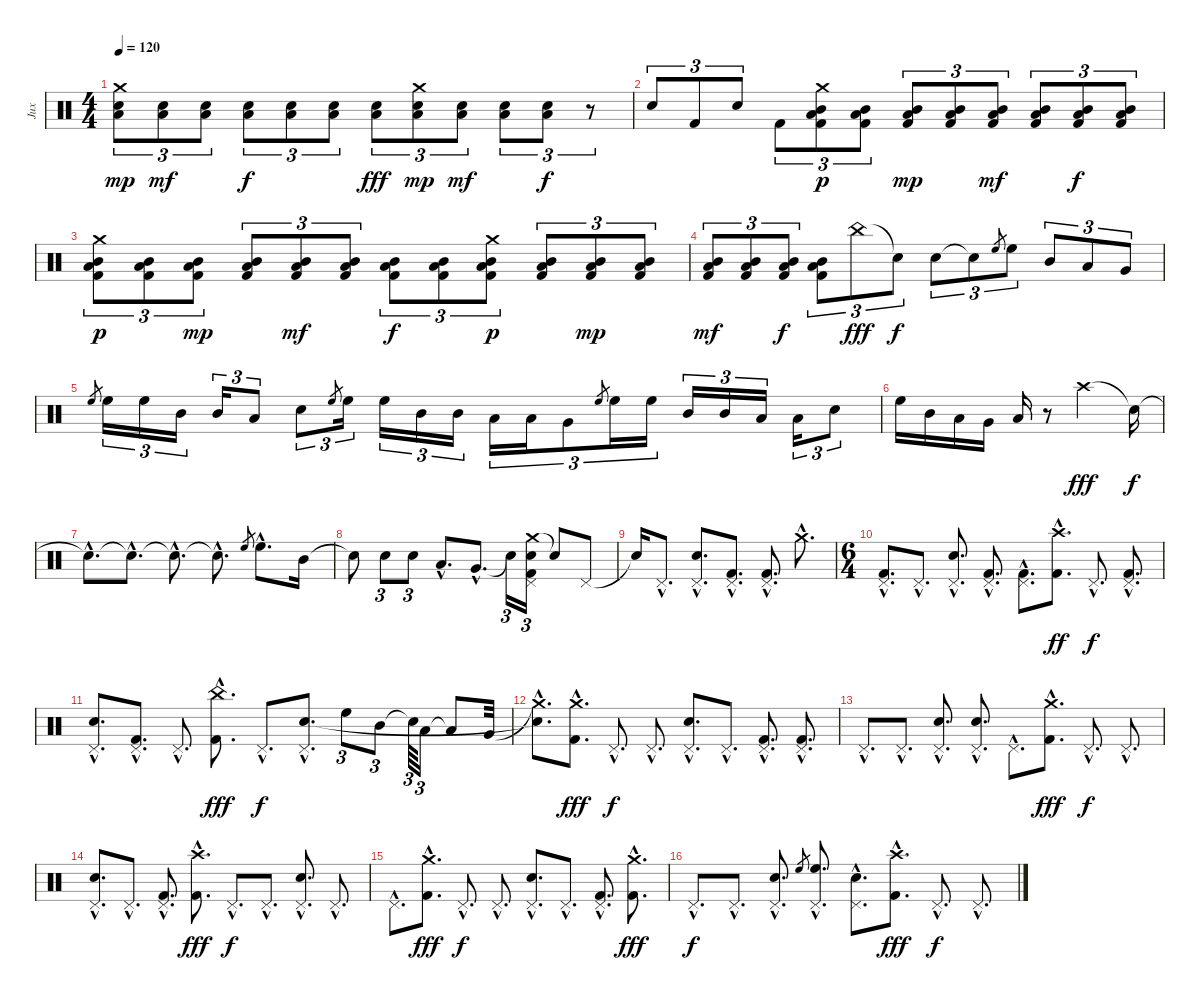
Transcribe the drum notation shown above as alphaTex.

\track ("Jux" "Jux") {instrument percussion}
\staff {score}
\articulation defaults
\ts (4 4)
\tempo 120
\clef neutral
\ks c
("Crash medium (hit)" "Low Tom (hit)" "Electric Snare (hit)").8{tu (3 2) dy mp} ("Low Tom (hit)" "Electric Snare (hit)").8{tu (3 2) dy mf} ("Low Tom (hit)" "Electric Snare (hit)").8{tu (3 2)} ("Low Tom (hit)" "Electric Snare (hit)").8{tu (3 2) dy f} ("Low Tom (hit)" "Electric Snare (hit)").8{tu (3 2)} ("Low Tom (hit)" "Electric Snare (hit)").8{tu (3 2)} ("Low Tom (hit)" "Electric Snare (hit)").8{tu (3 2) dy fff} ("Crash medium (hit)" "Low Tom (hit)" "Electric Snare (hit)").8{tu (3 2) dy mp} ("Low Tom (hit)" "Electric Snare (hit)").8{tu (3 2) dy mf} ("Low Tom (hit)" "Electric Snare (hit)").8{tu (3 2)} ("Low Tom (hit)" "Electric Snare (hit)").8{tu (3 2) dy f} r.8{tu (3 2)} |
"Electric Snare (hit)".8{tu (3 2)} "Kick (hit) 2".8{tu (3 2)} "Electric Snare (hit)".8{tu (3 2)} "Kick (hit) 2".8{tu (3 2)} ("Crash medium (hit)" "Low Tom (hit)" "Mid Tom (hit)" "Kick (hit) 2").8{tu (3 2) dy p} ("Low Tom (hit)" "Mid Tom (hit)" "Kick (hit) 2").8{tu (3 2)} ("Low Tom (hit)" "Mid Tom (hit)" "Kick (hit) 2").8{tu (3 2) dy mp} ("Low Tom (hit)" "Mid Tom (hit)" "Kick (hit) 2").8{tu (3 2)} ("Low Tom (hit)" "Mid Tom (hit)" "Kick (hit) 2").8{tu (3 2) dy mf} ("Low Tom (hit)" "Mid Tom (hit)" "Kick (hit) 2").8{tu (3 2)} ("Low Tom (hit)" "Mid Tom (hit)" "Kick (hit) 2").8{tu (3 2) dy f} ("Low Tom (hit)" "Mid Tom (hit)" "Kick (hit) 2").8{tu (3 2)} |
("Crash medium (hit)" "Low Tom (hit)" "Mid Tom (hit)" "Kick (hit) 2").8{tu (3 2) dy p} ("Low Tom (hit)" "Mid Tom (hit)" "Kick (hit) 2").8{tu (3 2)} ("Low Tom (hit)" "Mid Tom (hit)" "Kick (hit) 2").8{tu (3 2) dy mp} ("Low Tom (hit)" "Mid Tom (hit)" "Kick (hit) 2").8{tu (3 2)} ("Low Tom (hit)" "Mid Tom (hit)" "Kick (hit) 2").8{tu (3 2) dy mf} ("Low Tom (hit)" "Mid Tom (hit)" "Kick (hit) 2").8{tu (3 2)} ("Low Tom (hit)" "Mid Tom (hit)" "Kick (hit) 2").8{tu (3 2) dy f} ("Low Tom (hit)" "Mid Tom (hit)" "Kick (hit) 2").8{tu (3 2)} ("Crash medium (hit)" "Low Tom (hit)" "Mid Tom (hit)" "Kick (hit) 2").8{tu (3 2) dy p} ("Low Tom (hit)" "Mid Tom (hit)" "Kick (hit) 2").8{tu (3 2)} ("Low Tom (hit)" "Mid Tom (hit)" "Kick (hit) 2").8{tu (3 2) dy mp} ("Low Tom (hit)" "Mid Tom (hit)" "Kick (hit) 2").8{tu (3 2)} |
("Low Tom (hit)" "Mid Tom (hit)" "Kick (hit) 2").8{tu (3 2) dy mf} ("Low Tom (hit)" "Mid Tom (hit)" "Kick (hit) 2").8{tu (3 2)} ("Low Tom (hit)" "Mid Tom (hit)" "Kick (hit) 2").8{tu (3 2) dy f} ("Low Tom (hit)" "Mid Tom (hit)" "Kick (hit) 2").8{tu (3 2)} "China (hit)".8{tu (3 2) dy fff} "Snare (hit)"{t}.8{tu (3 2) dy f} "Electric Snare (hit)".8{tu (3 2)} "Snare (hit)"{t}.8{tu (3 2)} "High Floor Tom (hit)".8{gr} "High Floor Tom (hit)".8{tu (3 2)} "Mid Tom (hit)".8{tu (3 2)} "Low Tom (hit)".8{tu (3 2)} "Very Low Tom (hit)".8{tu (3 2)} |
"High Floor Tom (hit)".8{gr} "High Floor Tom (hit)".16{tu (3 2)} "High Floor Tom (hit)".16{tu (3 2)} "Mid Tom (hit)".16{tu (3 2)} "Mid Tom (hit)".16{tu (3 2)} "Low Tom (hit)".8{tu (3 2)} "Electric Snare (hit)".8{tu (3 2)} "High Floor Tom (hit)".8{gr} "High Floor Tom (hit)".16{tu (3 2)} "High Floor Tom (hit)".16{tu (3 2)} "Mid Tom (hit)".16{tu (3 2)} "Mid Tom (hit)".16{tu (3 2)} "Low Tom (hit)".16{tu (3 2)} "Low Tom (hit)".16{tu (3 2)} "Very Low Tom (hit)".8{tu (3 2)} "High Floor Tom (hit)".8{gr} "High Floor Tom (hit)".16{tu (3 2)} "High Floor Tom (hit)".16{tu (3 2)} "Mid Tom (hit)".16{tu (3 2)} "Mid Tom (hit)".16{tu (3 2)} "Low Tom (hit)".16{tu (3 2)} "Low Tom (hit)".16{tu (3 2)} "Electric Snare (hit)".8{tu (3 2)} |
"High Floor Tom (hit)".16 "Mid Tom (hit)".16 "Low Tom (hit)".16 "Very Low Tom (hit)".16 "Low Tom (hit)".16 r.8 "Crash high (hit)".2{dy fff} "Snare (hit)"{t}.16{dy f} |
"Snare (hit)"{hac t}.8{d} "Snare (hit)"{hac t}.8{d} "Snare (hit)"{hac t}.8{d} "Snare (hit)"{hac t}.8{d} "High Floor Tom (hit)".8{gr} "High Floor Tom (hit)"{hac}.8{d} "Mid Tom (hit)".16 |
"Snare (hit)"{t}.8 "Electric Snare (hit)".8{tu (3 2)} "Electric Snare (hit)".8{tu (3 2)} "Low Tom (hit)"{hac}.8{d} "Very Low Tom (hit)"{hac}.8{d} "Snare (hit)"{t}.16{tu (3 2)} ("Crash medium (hit)" "Pedal Hi-Hat (hit)" "Snare (hit)" "Kick (hit) 2").16{tu (3 2)} "Snare (hit)"{t}.8 "Pedal Hi-Hat (hit)".8 |
"Snare (hit)"{t}.16 "Pedal Hi-Hat (hit)"{hac}.8{d} ("Pedal Hi-Hat (hit)"{hac} "Electric Snare (hit)"{hac}).8{d} ("Pedal Hi-Hat (hit)"{hac} "Kick (hit) 2"{hac}).8{d} ("Pedal Hi-Hat (hit)"{hac} "Kick (hit) 2"{hac}).8{d} "Crash medium (hit)"{hac}.8{d} |
\ts (6 4)
("Pedal Hi-Hat (hit)"{hac} "Kick (hit) 2"{hac}).8{d} "Pedal Hi-Hat (hit)"{hac}.8{d} ("Pedal Hi-Hat (hit)"{hac} "Electric Snare (hit)"{hac}).8{d} ("Pedal Hi-Hat (hit)"{hac} "Kick (hit) 2"{hac}).8{d} ("Pedal Hi-Hat (hit)"{hac} "Kick (hit) 2"{hac}).8{d} ("Crash high (hit)"{hac} "Kick (hit) 2"{hac}).8{d dy ff} "Pedal Hi-Hat (hit)"{hac}.8{d dy f} ("Pedal Hi-Hat (hit)"{hac} "Kick (hit) 2"{hac}).8{d} |
("Pedal Hi-Hat (hit)"{hac} "Electric Snare (hit)"{hac}).8{d} ("Pedal Hi-Hat (hit)"{hac} "Kick (hit) 2"{hac}).8{d} "Pedal Hi-Hat (hit)"{hac}.8{d} ("China (hit)"{hac} "Kick (hit) 2"{hac}).8{d dy fff} "Pedal Hi-Hat (hit)"{hac}.8{d dy f} ("Pedal Hi-Hat (hit)"{hac} "Electric Snare (hit)"{hac}).8{d} "High Floor Tom (hit)".8{tu (3 2)} "Mid Tom (hit)".8{tu (3 2)} "Snare (hit)"{t}.64{tu (3 2)} "Low Tom (hit)".16{tu (3 2)} "Low Tom (hit)"{t}.8 "Very Low Tom (hit)".32 |
("Crash medium (hit)"{hac t} "Snare (hit)"{hac t}).8{d} ("Crash medium (hit)"{hac} "Kick (hit) 2"{hac}).8{d dy fff} "Pedal Hi-Hat (hit)"{hac}.8{d dy f} "Pedal Hi-Hat (hit)"{hac}.8{d} ("Pedal Hi-Hat (hit)"{hac} "Electric Snare (hit)"{hac}).8{d} "Pedal Hi-Hat (hit)"{hac}.8{d} ("Pedal Hi-Hat (hit)"{hac} "Kick (hit) 2"{hac}).8{d} ("Pedal Hi-Hat (hit)"{hac} "Kick (hit) 2"{hac}).8{d} |
"Pedal Hi-Hat (hit)"{hac}.8{d} "Pedal Hi-Hat (hit)"{hac}.8{d} ("Pedal Hi-Hat (hit)"{hac} "Electric Snare (hit)"{hac}).8{d} ("Pedal Hi-Hat (hit)"{hac} "Electric Snare (hit)"{hac}).8{d} "Pedal Hi-Hat (hit)"{hac}.8{d} ("Crash medium (hit)"{hac} "Kick (hit) 2"{hac}).8{d dy fff} "Pedal Hi-Hat (hit)"{hac}.8{d dy f} "Pedal Hi-Hat (hit)"{hac}.8{d} |
("Pedal Hi-Hat (hit)"{hac} "Electric Snare (hit)"{hac}).8{d} "Pedal Hi-Hat (hit)"{hac}.8{d} ("Pedal Hi-Hat (hit)"{hac} "Kick (hit) 2"{hac}).8{d} ("Crash high (hit)"{hac} "Kick (hit) 2"{hac}).8{d dy fff} "Pedal Hi-Hat (hit)"{hac}.8{d dy f} "Pedal Hi-Hat (hit)"{hac}.8{d} ("Pedal Hi-Hat (hit)"{hac} "Electric Snare (hit)"{hac}).8{d} "Pedal Hi-Hat (hit)"{hac}.8{d} |
"Pedal Hi-Hat (hit)"{hac}.8{d} ("Crash medium (hit)"{hac} "Kick (hit) 2"{hac}).8{d dy fff} "Pedal Hi-Hat (hit)"{hac}.8{d dy f} "Pedal Hi-Hat (hit)"{hac}.8{d} ("Pedal Hi-Hat (hit)"{hac} "Electric Snare (hit)"{hac}).8{d} "Pedal Hi-Hat (hit)"{hac}.8{d} ("Pedal Hi-Hat (hit)"{hac} "Kick (hit) 2"{hac}).8{d} ("Crash medium (hit)"{hac} "Kick (hit) 2"{hac}).8{d dy fff} |
"Pedal Hi-Hat (hit)"{hac}.8{d dy f} "Pedal Hi-Hat (hit)"{hac}.8{d} ("Pedal Hi-Hat (hit)"{hac} "Electric Snare (hit)"{hac}).8{d} "High Floor Tom (hit)".8{gr} ("Pedal Hi-Hat (hit)"{hac} "High Floor Tom (hit)"{hac}).8{d} ("Pedal Hi-Hat (hit)"{hac} "Electric Snare (hit)"{hac}).8{d} ("Crash high (hit)"{hac} "Kick (hit) 2"{hac}).8{d dy fff} "Pedal Hi-Hat (hit)"{hac}.8{d dy f} "Pedal Hi-Hat (hit)"{hac}.8{d}
